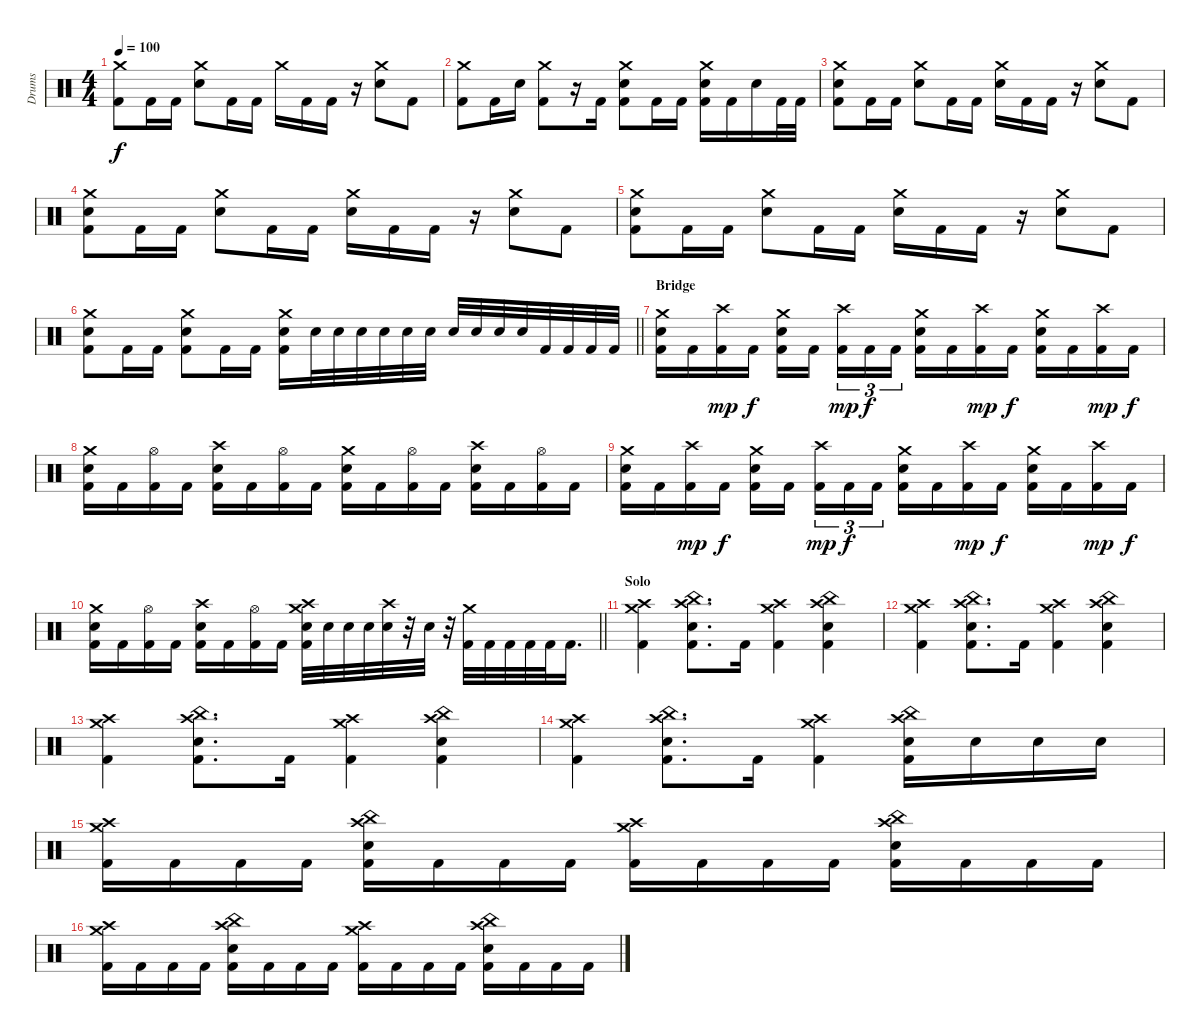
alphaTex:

\track ("Drums" "Drums") {instrument percussion}
\staff {score}
\articulation defaults
\ts (4 4)
\tempo 100
\clef neutral
\ks c
("Crash medium (hit)" "Kick (hit) 2").8{dy f} "Kick (hit) 2".16 "Kick (hit) 2".16 ("Crash medium (hit)" "Electric Snare (hit)").8 "Kick (hit) 2".16 "Kick (hit) 2".16 "Crash medium (hit)".16 "Kick (hit) 2".16 "Kick (hit) 2".16 r.16 ("Crash medium (hit)" "Electric Snare (hit)").8 "Kick (hit) 2".8 |
("Crash medium (hit)" "Kick (hit) 2").8 "Kick (hit) 2".16 "Electric Snare (hit)".16 ("Crash medium (hit)" "Kick (hit) 2").8 r.16 "Kick (hit) 2".16 ("Crash medium (hit)" "Electric Snare (hit)" "Kick (hit) 2").8 "Kick (hit) 2".16 "Kick (hit) 2".16 ("Crash medium (hit)" "Electric Snare (hit)" "Kick (hit) 2").16 "Kick (hit) 2".16 "Electric Snare (hit)".16 "Kick (hit) 2".32 "Kick (hit) 2".32 |
("Crash medium (hit)" "Electric Snare (hit)" "Kick (hit) 2").8 "Kick (hit) 2".16 "Kick (hit) 2".16 ("Crash medium (hit)" "Electric Snare (hit)").8 "Kick (hit) 2".16 "Kick (hit) 2".16 ("Crash medium (hit)" "Electric Snare (hit)").16 "Kick (hit) 2".16 "Kick (hit) 2".16 r.16 ("Crash medium (hit)" "Electric Snare (hit)").8 "Kick (hit) 2".8 |
("Crash medium (hit)" "Electric Snare (hit)" "Kick (hit) 2").8 "Kick (hit) 2".16 "Kick (hit) 2".16 ("Crash medium (hit)" "Electric Snare (hit)").8 "Kick (hit) 2".16 "Kick (hit) 2".16 ("Crash medium (hit)" "Electric Snare (hit)").16 "Kick (hit) 2".16 "Kick (hit) 2".16 r.16 ("Crash medium (hit)" "Electric Snare (hit)").8 "Kick (hit) 2".8 |
("Crash medium (hit)" "Electric Snare (hit)" "Kick (hit) 2").8 "Kick (hit) 2".16 "Kick (hit) 2".16 ("Crash medium (hit)" "Electric Snare (hit)").8 "Kick (hit) 2".16 "Kick (hit) 2".16 ("Crash medium (hit)" "Electric Snare (hit)").16 "Kick (hit) 2".16 "Kick (hit) 2".16 r.16 ("Crash medium (hit)" "Electric Snare (hit)").8 "Kick (hit) 2".8 |
\barLineRight lightlight
("Crash medium (hit)" "Electric Snare (hit)" "Kick (hit) 2").8 "Kick (hit) 2".16 "Kick (hit) 2".16 ("Crash medium (hit)" "Electric Snare (hit)" "Kick (hit) 2").8 "Kick (hit) 2".16 "Kick (hit) 2".16 ("Crash medium (hit)" "Electric Snare (hit)" "Kick (hit) 2").16 "Electric Snare (hit)".32 "Electric Snare (hit)".32 "Electric Snare (hit)".32 "Electric Snare (hit)".32 "Electric Snare (hit)".32 "Electric Snare (hit)".32 "Electric Snare (hit)".32 "Electric Snare (hit)".32 "Electric Snare (hit)".32 "Electric Snare (hit)".32 "Kick (hit) 2".32 "Kick (hit) 2".32 "Kick (hit) 2".32 "Kick (hit) 2".32 |
\section ("" "Bridge")
("Crash medium (hit)" "Snare (hit) 2" "Kick (hit) 2").16 "Kick (hit) 2".16 ("Crash high (hit)" "Kick (hit) 2").16{dy mp} "Kick (hit) 2".16{dy f} ("Crash medium (hit)" "Snare (hit) 2" "Kick (hit) 2").16 "Kick (hit) 2".16{beam splitsecondary} ("Crash high (hit)" "Kick (hit) 2").16{tu (3 2) dy mp} "Kick (hit) 2".16{tu (3 2) dy f} "Kick (hit) 2".16{tu (3 2)} ("Crash medium (hit)" "Snare (hit) 2" "Kick (hit) 2").16 "Kick (hit) 2".16 ("Crash high (hit)" "Kick (hit) 2").16{dy mp} "Kick (hit) 2".16{dy f} ("Crash medium (hit)" "Snare (hit) 2" "Kick (hit) 2").16 "Kick (hit) 2".16 ("Crash high (hit)" "Kick (hit) 2").16{dy mp} "Kick (hit) 2".16{dy f} |
("Crash medium (hit)" "Snare (hit) 2" "Kick (hit) 2").16 "Kick (hit) 2".16 ("Hi-Hat (open)" "Kick (hit) 2").16 "Kick (hit) 2".16 ("Crash high (hit)" "Snare (hit) 2" "Kick (hit) 2").16 "Kick (hit) 2".16 ("Hi-Hat (open)" "Kick (hit) 2").16 "Kick (hit) 2".16 ("Crash medium (hit)" "Snare (hit) 2" "Kick (hit) 2").16 "Kick (hit) 2".16 ("Hi-Hat (open)" "Kick (hit) 2").16 "Kick (hit) 2".16 ("Crash high (hit)" "Snare (hit) 2" "Kick (hit) 2").16 "Kick (hit) 2".16 ("Hi-Hat (open)" "Kick (hit) 2").16 "Kick (hit) 2".16 |
("Crash medium (hit)" "Snare (hit) 2" "Kick (hit) 2").16 "Kick (hit) 2".16 ("Crash high (hit)" "Kick (hit) 2").16{dy mp} "Kick (hit) 2".16{dy f} ("Crash medium (hit)" "Snare (hit) 2" "Kick (hit) 2").16 "Kick (hit) 2".16{beam splitsecondary} ("Crash high (hit)" "Kick (hit) 2").16{tu (3 2) dy mp} "Kick (hit) 2".16{tu (3 2) dy f} "Kick (hit) 2".16{tu (3 2)} ("Crash medium (hit)" "Snare (hit) 2" "Kick (hit) 2").16 "Kick (hit) 2".16 ("Crash high (hit)" "Kick (hit) 2").16{dy mp} "Kick (hit) 2".16{dy f} ("Crash medium (hit)" "Snare (hit) 2" "Kick (hit) 2").16 "Kick (hit) 2".16 ("Crash high (hit)" "Kick (hit) 2").16{dy mp} "Kick (hit) 2".16{dy f} |
\barLineRight lightlight
("Crash medium (hit)" "Electric Snare (hit)" "Kick (hit) 2").16 "Kick (hit) 2".16 ("Hi-Hat (open)" "Kick (hit) 2").16 "Kick (hit) 2".16 ("Crash high (hit)" "Electric Snare (hit)" "Kick (hit) 2").16 "Kick (hit) 2".16 ("Hi-Hat (open)" "Kick (hit) 2").16 "Kick (hit) 2".16 ("Crash medium (hit)" "Crash high (hit)" "Electric Snare (hit)" "Kick (hit) 2").32 "Electric Snare (hit)".32 "Electric Snare (hit)".32 "Electric Snare (hit)".32 ("Crash high (hit)" "Electric Snare (hit)").32 r.32 "Electric Snare (hit)".32 r.32 ("Crash medium (hit)" "Kick (hit) 2").32 "Kick (hit) 2".32 "Kick (hit) 2".32 "Kick (hit) 2".32 "Kick (hit) 2".32 "Kick (hit) 2".16{d} |
\section ("" "Solo")
("Crash medium (hit)" "Crash high (hit)" "Kick (hit) 2").4 ("China (hit)" "Crash high (hit)" "Electric Snare (hit)" "Kick (hit) 2").8{d} "Kick (hit) 2".16 ("Crash medium (hit)" "Crash high (hit)" "Kick (hit) 2").4 ("China (hit)" "Crash high (hit)" "Electric Snare (hit)" "Kick (hit) 2").4 |
("Crash medium (hit)" "Crash high (hit)" "Kick (hit) 2").4 ("China (hit)" "Crash high (hit)" "Electric Snare (hit)" "Kick (hit) 2").8{d} "Kick (hit) 2".16 ("Crash medium (hit)" "Crash high (hit)" "Kick (hit) 2").4 ("China (hit)" "Crash high (hit)" "Electric Snare (hit)" "Kick (hit) 2").4 |
("Crash medium (hit)" "Crash high (hit)" "Kick (hit) 2").4 ("China (hit)" "Crash high (hit)" "Electric Snare (hit)" "Kick (hit) 2").8{d} "Kick (hit) 2".16 ("Crash medium (hit)" "Crash high (hit)" "Kick (hit) 2").4 ("China (hit)" "Crash high (hit)" "Electric Snare (hit)" "Kick (hit) 2").4 |
("Crash medium (hit)" "Crash high (hit)" "Kick (hit) 2").4 ("China (hit)" "Crash high (hit)" "Electric Snare (hit)" "Kick (hit) 2").8{d} "Kick (hit) 2".16 ("Crash medium (hit)" "Crash high (hit)" "Kick (hit) 2").4 ("China (hit)" "Crash high (hit)" "Electric Snare (hit)" "Kick (hit) 2").16 "Electric Snare (hit)".16 "Electric Snare (hit)".16 "Electric Snare (hit)".16 |
("Crash medium (hit)" "Crash high (hit)" "Kick (hit) 2").16 "Kick (hit) 2".16 "Kick (hit) 2".16 "Kick (hit) 2".16 ("China (hit)" "Crash high (hit)" "Electric Snare (hit)" "Kick (hit) 2").16 "Kick (hit) 2".16 "Kick (hit) 2".16 "Kick (hit) 2".16 ("Crash medium (hit)" "Crash high (hit)" "Kick (hit) 2").16 "Kick (hit) 2".16 "Kick (hit) 2".16 "Kick (hit) 2".16 ("China (hit)" "Crash high (hit)" "Electric Snare (hit)" "Kick (hit) 2").16 "Kick (hit) 2".16 "Kick (hit) 2".16 "Kick (hit) 2".16 |
("Crash medium (hit)" "Crash high (hit)" "Kick (hit) 2").16 "Kick (hit) 2".16 "Kick (hit) 2".16 "Kick (hit) 2".16 ("China (hit)" "Crash high (hit)" "Electric Snare (hit)" "Kick (hit) 2").16 "Kick (hit) 2".16 "Kick (hit) 2".16 "Kick (hit) 2".16 ("Crash medium (hit)" "Crash high (hit)" "Kick (hit) 2").16 "Kick (hit) 2".16 "Kick (hit) 2".16 "Kick (hit) 2".16 ("China (hit)" "Crash high (hit)" "Electric Snare (hit)" "Kick (hit) 2").16 "Kick (hit) 2".16 "Kick (hit) 2".16 "Kick (hit) 2".16
